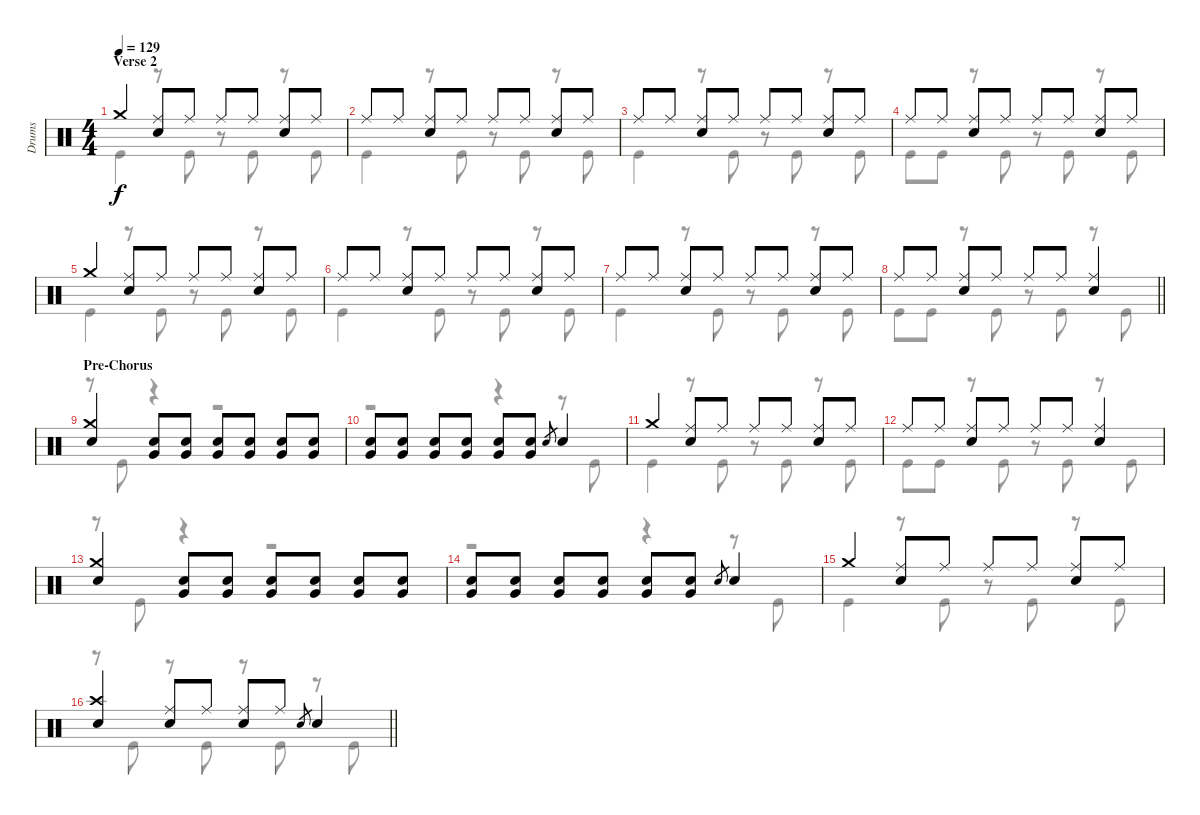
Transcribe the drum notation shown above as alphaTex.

\track ("Drums" "Drums") {instrument percussion}
\staff {score}
\articulation defaults
\voice
\ts (4 4)
\section ("" "Verse 2")
\tempo 129
\clef neutral
\ks c "Crash medium (hit)".4{dy f}
("Ride (middle)" "Electric Snare (hit)").8 "Ride (middle)".8 "Ride (middle)".8 "Ride (middle)".8 ("Ride (middle)" "Electric Snare (hit)").8 "Ride (middle)".8 |
"Ride (middle)".8 "Ride (middle)".8 ("Ride (middle)" "Electric Snare (hit)").8 "Ride (middle)".8 "Ride (middle)".8 "Ride (middle)".8 ("Ride (middle)" "Electric Snare (hit)").8 "Ride (middle)".8 |
"Ride (middle)".8 "Ride (middle)".8 ("Ride (middle)" "Electric Snare (hit)").8 "Ride (middle)".8 "Ride (middle)".8 "Ride (middle)".8 ("Ride (middle)" "Electric Snare (hit)").8 "Ride (middle)".8 |
"Ride (middle)".8 "Ride (middle)".8 ("Ride (middle)" "Electric Snare (hit)").8 "Ride (middle)".8 "Ride (middle)".8 "Ride (middle)".8 ("Ride (middle)" "Electric Snare (hit)").8 "Ride (middle)".8 |
"Crash medium (hit)".4 ("Ride (middle)" "Electric Snare (hit)").8 "Ride (middle)".8 "Ride (middle)".8 "Ride (middle)".8 ("Ride (middle)" "Electric Snare (hit)").8 "Ride (middle)".8 |
"Ride (middle)".8 "Ride (middle)".8 ("Ride (middle)" "Electric Snare (hit)").8 "Ride (middle)".8 "Ride (middle)".8 "Ride (middle)".8 ("Ride (middle)" "Electric Snare (hit)").8 "Ride (middle)".8 |
"Ride (middle)".8 "Ride (middle)".8 ("Ride (middle)" "Electric Snare (hit)").8 "Ride (middle)".8 "Ride (middle)".8 "Ride (middle)".8 ("Ride (middle)" "Electric Snare (hit)").8 "Ride (middle)".8 |
\barLineRight lightlight "Ride (middle)".8 "Ride (middle)".8
("Ride (middle)" "Electric Snare (hit)").8 "Ride (middle)".8 "Ride (middle)".8 "Ride (middle)".8 ("Ride (middle)" "Electric Snare (hit)").4 |
\section ("" "Pre-Chorus")
("Crash medium (hit)" "Electric Snare (hit)").4 ("Very Low Tom (hit)" "Electric Snare (hit)").8 ("Very Low Tom (hit)" "Electric Snare (hit)").8 ("Very Low Tom (hit)" "Electric Snare (hit)").8 ("Very Low Tom (hit)" "Electric Snare (hit)").8 ("Very Low Tom (hit)" "Electric Snare (hit)").8 ("Very Low Tom (hit)" "Electric Snare (hit)").8 |
("Very Low Tom (hit)" "Electric Snare (hit)").8 ("Very Low Tom (hit)" "Electric Snare (hit)").8 ("Very Low Tom (hit)" "Electric Snare (hit)").8 ("Very Low Tom (hit)" "Electric Snare (hit)").8 ("Very Low Tom (hit)" "Electric Snare (hit)").8 ("Very Low Tom (hit)" "Electric Snare (hit)").8 "Electric Snare (hit)".8{gr} "Electric Snare (hit)".4 |
"Crash medium (hit)".4 ("Ride (middle)" "Electric Snare (hit)").8 "Ride (middle)".8 "Ride (middle)".8 "Ride (middle)".8 ("Ride (middle)" "Electric Snare (hit)").8 "Ride (middle)".8 |
"Ride (middle)".8 "Ride (middle)".8 ("Ride (middle)" "Electric Snare (hit)").8 "Ride (middle)".8 "Ride (middle)".8 "Ride (middle)".8 ("Ride (middle)" "Electric Snare (hit)").4 |
("Crash medium (hit)" "Electric Snare (hit)").4 ("Very Low Tom (hit)" "Electric Snare (hit)").8 ("Very Low Tom (hit)" "Electric Snare (hit)").8 ("Very Low Tom (hit)" "Electric Snare (hit)").8 ("Very Low Tom (hit)" "Electric Snare (hit)").8 ("Very Low Tom (hit)" "Electric Snare (hit)").8 ("Very Low Tom (hit)" "Electric Snare (hit)").8 |
("Very Low Tom (hit)" "Electric Snare (hit)").8 ("Very Low Tom (hit)" "Electric Snare (hit)").8 ("Very Low Tom (hit)" "Electric Snare (hit)").8 ("Very Low Tom (hit)" "Electric Snare (hit)").8 ("Very Low Tom (hit)" "Electric Snare (hit)").8 ("Very Low Tom (hit)" "Electric Snare (hit)").8 "Electric Snare (hit)".8{gr} "Electric Snare (hit)".4 |
"Crash medium (hit)".4 ("Ride (middle)" "Electric Snare (hit)").8 "Ride (middle)".8 "Ride (middle)".8 "Ride (middle)".8 ("Ride (middle)" "Electric Snare (hit)").8 "Ride (middle)".8 |
\barLineRight lightlight
("Crash high (hit)" "Electric Snare (hit)").4 ("Ride (middle)" "Electric Snare (hit)").8 "Ride (middle)".8 ("Ride (middle)" "Electric Snare (hit)").8 "Ride (middle)".8 "Electric Snare (hit)".8{gr} "Electric Snare (hit)".4
\voice
\clef neutral
\ottava regular
\simile none
\ks c "Kick (hit)".4{dy f}
r.8 "Kick (hit)".8 r.8 "Kick (hit)".8 r.8 "Kick (hit)".8 |
"Kick (hit)".4 r.8 "Kick (hit)".8 r.8 "Kick (hit)".8 r.8 "Kick (hit)".8 |
"Kick (hit)".4 r.8 "Kick (hit)".8 r.8 "Kick (hit)".8 r.8 "Kick (hit)".8 |
"Kick (hit)".8 "Kick (hit)".8 r.8 "Kick (hit)".8 r.8 "Kick (hit)".8 r.8 "Kick (hit)".8 |
"Kick (hit)".4 r.8 "Kick (hit)".8 r.8 "Kick (hit)".8 r.8 "Kick (hit)".8 |
"Kick (hit)".4 r.8 "Kick (hit)".8 r.8 "Kick (hit)".8 r.8 "Kick (hit)".8 |
"Kick (hit)".4 r.8 "Kick (hit)".8 r.8 "Kick (hit)".8 r.8 "Kick (hit)".8 |
\barLineRight lightlight "Kick (hit)".8 "Kick (hit)".8
r.8 "Kick (hit)".8 r.8 "Kick (hit)".8 r.8 "Kick (hit)".8 |
r.8 "Kick (hit)".8 r.4 r.2 |
r.2 r.4 r.8 "Kick (hit)".8 |
"Kick (hit)".4 r.8 "Kick (hit)".8 r.8 "Kick (hit)".8 r.8 "Kick (hit)".8 |
"Kick (hit)".8 "Kick (hit)".8 r.8 "Kick (hit)".8 r.8 "Kick (hit)".8 r.8 "Kick (hit)".8 |
r.8 "Kick (hit)".8 r.4 r.2 |
r.2 r.4 r.8 "Kick (hit)".8 |
"Kick (hit)".4 r.8 "Kick (hit)".8 r.8 "Kick (hit)".8 r.8 "Kick (hit)".8 |
\barLineRight lightlight
r.8 "Kick (hit)".8 r.8 "Kick (hit)".8 r.8 "Kick (hit)".8 r.8 "Kick (hit)".8
